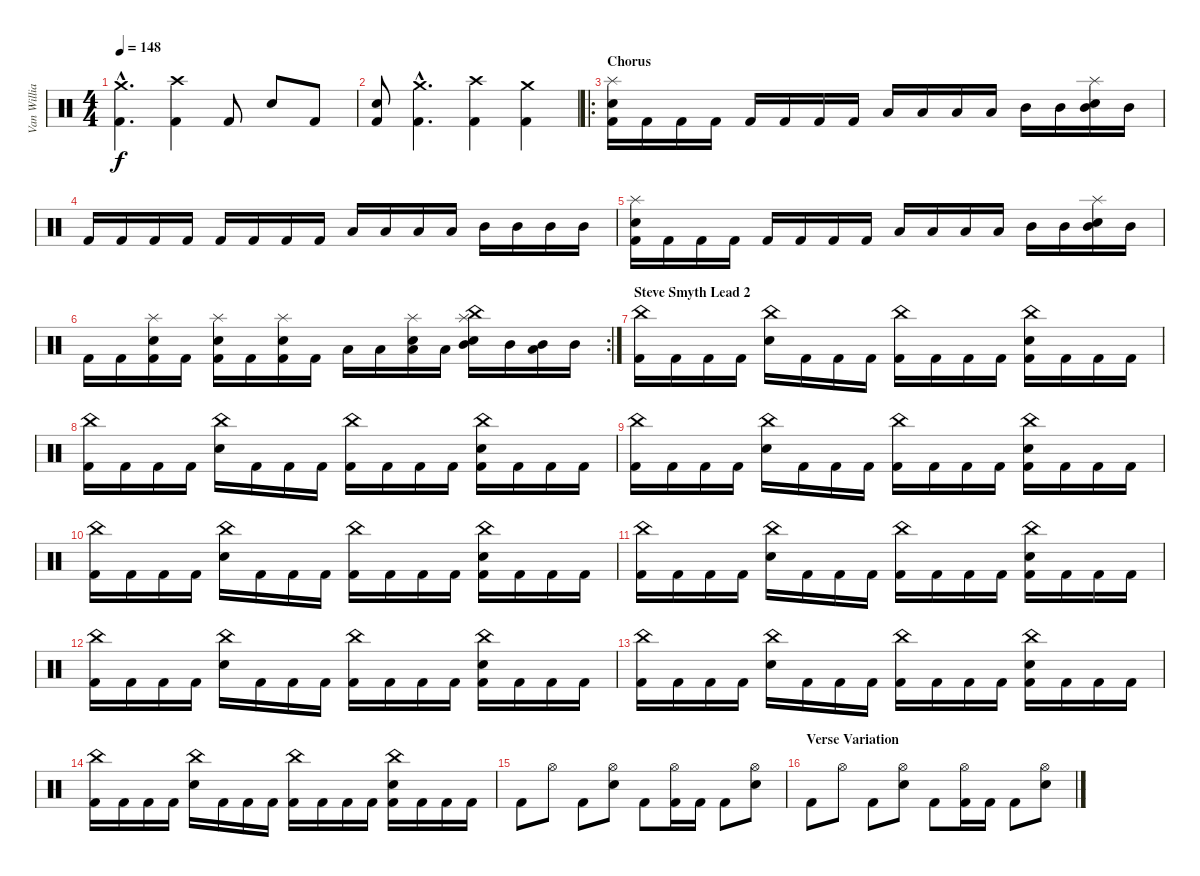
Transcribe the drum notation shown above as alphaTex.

\track ("Van Williams" "Van Willia") {instrument percussion}
\staff {score}
\articulation defaults
\ts (4 4)
\tempo 148
\clef neutral
\ks c
("Crash medium (hit)"{hac} "Kick (hit) 2"{hac}).4{d dy f} ("Crash high (hit)" "Kick (hit) 2").4 "Kick (hit) 2".8 "Electric Snare (hit)".8 "Kick (hit) 2".8 |
("Electric Snare (hit)" "Kick (hit) 2").8 ("Crash medium (hit)"{hac} "Kick (hit) 2"{hac}).4{d} ("Crash high (hit)" "Kick (hit) 2").4 ("Crash medium (hit)" "Kick (hit) 2").4 |
\ro
\section ("" "Chorus")
("Splash (hit)" "Electric Snare (hit)" "Kick (hit) 2").16 "Kick (hit) 2".16 "Kick (hit) 2".16 "Kick (hit) 2".16 "Kick (hit) 2".16 "Kick (hit) 2".16 "Kick (hit) 2".16 "Kick (hit) 2".16 "Low Tom (hit)".16 "Low Tom (hit)".16 "Low Tom (hit)".16 "Low Tom (hit)".16 "Mid Tom (hit)".16 "Mid Tom (hit)".16 ("Splash (hit)" "Electric Snare (hit)" "Mid Tom (hit)").16 "Mid Tom (hit)".16 |
"Kick (hit) 2".16 "Kick (hit) 2".16 "Kick (hit) 2".16 "Kick (hit) 2".16 "Kick (hit) 2".16 "Kick (hit) 2".16 "Kick (hit) 2".16 "Kick (hit) 2".16 "Low Tom (hit)".16 "Low Tom (hit)".16 "Low Tom (hit)".16 "Low Tom (hit)".16 "Mid Tom (hit)".16 "Mid Tom (hit)".16 "Mid Tom (hit)".16 "Mid Tom (hit)".16 |
("Splash (hit)" "Electric Snare (hit)" "Kick (hit) 2").16 "Kick (hit) 2".16 "Kick (hit) 2".16 "Kick (hit) 2".16 "Kick (hit) 2".16 "Kick (hit) 2".16 "Kick (hit) 2".16 "Kick (hit) 2".16 "Low Tom (hit)".16 "Low Tom (hit)".16 "Low Tom (hit)".16 "Low Tom (hit)".16 "Mid Tom (hit)".16 "Mid Tom (hit)".16 ("Splash (hit)" "Electric Snare (hit)" "Mid Tom (hit)").16 "Mid Tom (hit)".16 |
\rc 2 "Kick (hit) 2".16 "Kick (hit) 2".16
("Splash (hit)" "Electric Snare (hit)" "Kick (hit) 2").16 "Kick (hit) 2".16 ("Splash (hit)" "Electric Snare (hit)" "Kick (hit) 2").16 "Kick (hit) 2".16 ("Splash (hit)" "Electric Snare (hit)" "Kick (hit) 2").16 "Kick (hit) 2".16 "Low Tom (hit)".16 "Low Tom (hit)".16 ("Splash (hit)" "Electric Snare (hit)" "Low Tom (hit)").16 "Low Tom (hit)".16 ("Splash (hit)" "China (hit)" "Electric Snare (hit)" "Mid Tom (hit)").16 "Mid Tom (hit)".16 ("Low Tom (hit)" "Mid Tom (hit)").16 "Mid Tom (hit)".16 |
\section ("" "Steve Smyth Lead 2")
("China (hit)" "Kick (hit) 2").16 "Kick (hit) 2".16 "Kick (hit) 2".16 "Kick (hit) 2".16 ("China (hit)" "Electric Snare (hit)").16 "Kick (hit) 2".16 "Kick (hit) 2".16 "Kick (hit) 2".16 ("China (hit)" "Kick (hit) 2").16 "Kick (hit) 2".16 "Kick (hit) 2".16 "Kick (hit) 2".16 ("China (hit)" "Electric Snare (hit)" "Kick (hit) 2").16 "Kick (hit) 2".16 "Kick (hit) 2".16 "Kick (hit) 2".16 |
("China (hit)" "Kick (hit) 2").16 "Kick (hit) 2".16 "Kick (hit) 2".16 "Kick (hit) 2".16 ("China (hit)" "Electric Snare (hit)").16 "Kick (hit) 2".16 "Kick (hit) 2".16 "Kick (hit) 2".16 ("China (hit)" "Kick (hit) 2").16 "Kick (hit) 2".16 "Kick (hit) 2".16 "Kick (hit) 2".16 ("China (hit)" "Electric Snare (hit)" "Kick (hit) 2").16 "Kick (hit) 2".16 "Kick (hit) 2".16 "Kick (hit) 2".16 |
("China (hit)" "Kick (hit) 2").16 "Kick (hit) 2".16 "Kick (hit) 2".16 "Kick (hit) 2".16 ("China (hit)" "Electric Snare (hit)").16 "Kick (hit) 2".16 "Kick (hit) 2".16 "Kick (hit) 2".16 ("China (hit)" "Kick (hit) 2").16 "Kick (hit) 2".16 "Kick (hit) 2".16 "Kick (hit) 2".16 ("China (hit)" "Electric Snare (hit)" "Kick (hit) 2").16 "Kick (hit) 2".16 "Kick (hit) 2".16 "Kick (hit) 2".16 |
("China (hit)" "Kick (hit) 2").16 "Kick (hit) 2".16 "Kick (hit) 2".16 "Kick (hit) 2".16 ("China (hit)" "Electric Snare (hit)").16 "Kick (hit) 2".16 "Kick (hit) 2".16 "Kick (hit) 2".16 ("China (hit)" "Kick (hit) 2").16 "Kick (hit) 2".16 "Kick (hit) 2".16 "Kick (hit) 2".16 ("China (hit)" "Electric Snare (hit)" "Kick (hit) 2").16 "Kick (hit) 2".16 "Kick (hit) 2".16 "Kick (hit) 2".16 |
("China (hit)" "Kick (hit) 2").16 "Kick (hit) 2".16 "Kick (hit) 2".16 "Kick (hit) 2".16 ("China (hit)" "Electric Snare (hit)").16 "Kick (hit) 2".16 "Kick (hit) 2".16 "Kick (hit) 2".16 ("China (hit)" "Kick (hit) 2").16 "Kick (hit) 2".16 "Kick (hit) 2".16 "Kick (hit) 2".16 ("China (hit)" "Electric Snare (hit)" "Kick (hit) 2").16 "Kick (hit) 2".16 "Kick (hit) 2".16 "Kick (hit) 2".16 |
("China (hit)" "Kick (hit) 2").16 "Kick (hit) 2".16 "Kick (hit) 2".16 "Kick (hit) 2".16 ("China (hit)" "Electric Snare (hit)").16 "Kick (hit) 2".16 "Kick (hit) 2".16 "Kick (hit) 2".16 ("China (hit)" "Kick (hit) 2").16 "Kick (hit) 2".16 "Kick (hit) 2".16 "Kick (hit) 2".16 ("China (hit)" "Electric Snare (hit)" "Kick (hit) 2").16 "Kick (hit) 2".16 "Kick (hit) 2".16 "Kick (hit) 2".16 |
("China (hit)" "Kick (hit) 2").16 "Kick (hit) 2".16 "Kick (hit) 2".16 "Kick (hit) 2".16 ("China (hit)" "Electric Snare (hit)").16 "Kick (hit) 2".16 "Kick (hit) 2".16 "Kick (hit) 2".16 ("China (hit)" "Kick (hit) 2").16 "Kick (hit) 2".16 "Kick (hit) 2".16 "Kick (hit) 2".16 ("China (hit)" "Electric Snare (hit)" "Kick (hit) 2").16 "Kick (hit) 2".16 "Kick (hit) 2".16 "Kick (hit) 2".16 |
("China (hit)" "Kick (hit) 2").16 "Kick (hit) 2".16 "Kick (hit) 2".16 "Kick (hit) 2".16 ("China (hit)" "Electric Snare (hit)").16 "Kick (hit) 2".16 "Kick (hit) 2".16 "Kick (hit) 2".16 ("China (hit)" "Kick (hit) 2").16 "Kick (hit) 2".16 "Kick (hit) 2".16 "Kick (hit) 2".16 ("China (hit)" "Electric Snare (hit)" "Kick (hit) 2").16 "Kick (hit) 2".16 "Kick (hit) 2".16 "Kick (hit) 2".16 |
"Kick (hit) 2".8 "Hi-Hat (open)".8 "Kick (hit) 2".8 ("Hi-Hat (open)" "Electric Snare (hit)").8 "Kick (hit) 2".8 ("Hi-Hat (open)" "Kick (hit) 2").16 "Kick (hit) 2".16 "Kick (hit) 2".8 ("Hi-Hat (open)" "Electric Snare (hit)").8 |
\section ("" "Verse Variation")
"Kick (hit) 2".8 "Hi-Hat (open)".8 "Kick (hit) 2".8 ("Hi-Hat (open)" "Electric Snare (hit)").8 "Kick (hit) 2".8 ("Hi-Hat (open)" "Kick (hit) 2").16 "Kick (hit) 2".16 "Kick (hit) 2".8 ("Hi-Hat (open)" "Electric Snare (hit)").8
